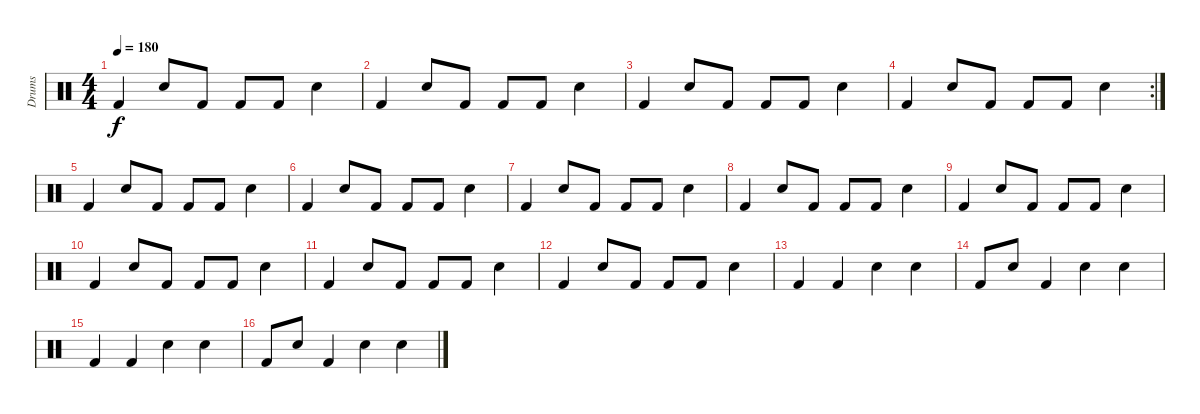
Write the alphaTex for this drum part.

\track ("Drums" "Drums") {instrument percussion}
\staff {score}
\articulation defaults
\ts (4 4)
\tempo 180
\clef neutral
\ks c "Kick (hit) 2".4{dy f} "Snare (hit) 2".8 "Kick (hit) 2".8 "Kick (hit) 2".8 "Kick (hit) 2".8 "Snare (hit) 2".4
|
"Kick (hit) 2".4 "Snare (hit) 2".8 "Kick (hit) 2".8 "Kick (hit) 2".8 "Kick (hit) 2".8 "Snare (hit) 2".4 |
"Kick (hit) 2".4 "Snare (hit) 2".8 "Kick (hit) 2".8 "Kick (hit) 2".8 "Kick (hit) 2".8 "Snare (hit) 2".4 |
\rc 2 "Kick (hit) 2".4 "Snare (hit) 2".8 "Kick (hit) 2".8 "Kick (hit) 2".8 "Kick (hit) 2".8 "Snare (hit) 2".4
|
"Kick (hit) 2".4 "Snare (hit) 2".8 "Kick (hit) 2".8 "Kick (hit) 2".8 "Kick (hit) 2".8 "Snare (hit) 2".4 |
"Kick (hit) 2".4 "Snare (hit) 2".8 "Kick (hit) 2".8 "Kick (hit) 2".8 "Kick (hit) 2".8 "Snare (hit) 2".4 |
"Kick (hit) 2".4 "Snare (hit) 2".8 "Kick (hit) 2".8 "Kick (hit) 2".8 "Kick (hit) 2".8 "Snare (hit) 2".4 |
"Kick (hit) 2".4 "Snare (hit) 2".8 "Kick (hit) 2".8 "Kick (hit) 2".8 "Kick (hit) 2".8 "Snare (hit) 2".4 |
"Kick (hit) 2".4 "Snare (hit) 2".8 "Kick (hit) 2".8 "Kick (hit) 2".8 "Kick (hit) 2".8 "Snare (hit) 2".4 |
"Kick (hit) 2".4 "Snare (hit) 2".8 "Kick (hit) 2".8 "Kick (hit) 2".8 "Kick (hit) 2".8 "Snare (hit) 2".4 |
"Kick (hit) 2".4 "Snare (hit) 2".8 "Kick (hit) 2".8 "Kick (hit) 2".8 "Kick (hit) 2".8 "Snare (hit) 2".4 |
"Kick (hit) 2".4 "Snare (hit) 2".8 "Kick (hit) 2".8 "Kick (hit) 2".8 "Kick (hit) 2".8 "Snare (hit) 2".4 |
"Kick (hit) 2".4 "Kick (hit) 2".4 "Snare (hit) 2".4 "Snare (hit) 2".4 |
"Kick (hit) 2".8 "Snare (hit) 2".8 "Kick (hit) 2".4 "Snare (hit) 2".4 "Snare (hit) 2".4 |
"Kick (hit) 2".4 "Kick (hit) 2".4 "Snare (hit) 2".4 "Snare (hit) 2".4 |
"Kick (hit) 2".8 "Snare (hit) 2".8 "Kick (hit) 2".4 "Snare (hit) 2".4 "Snare (hit) 2".4
